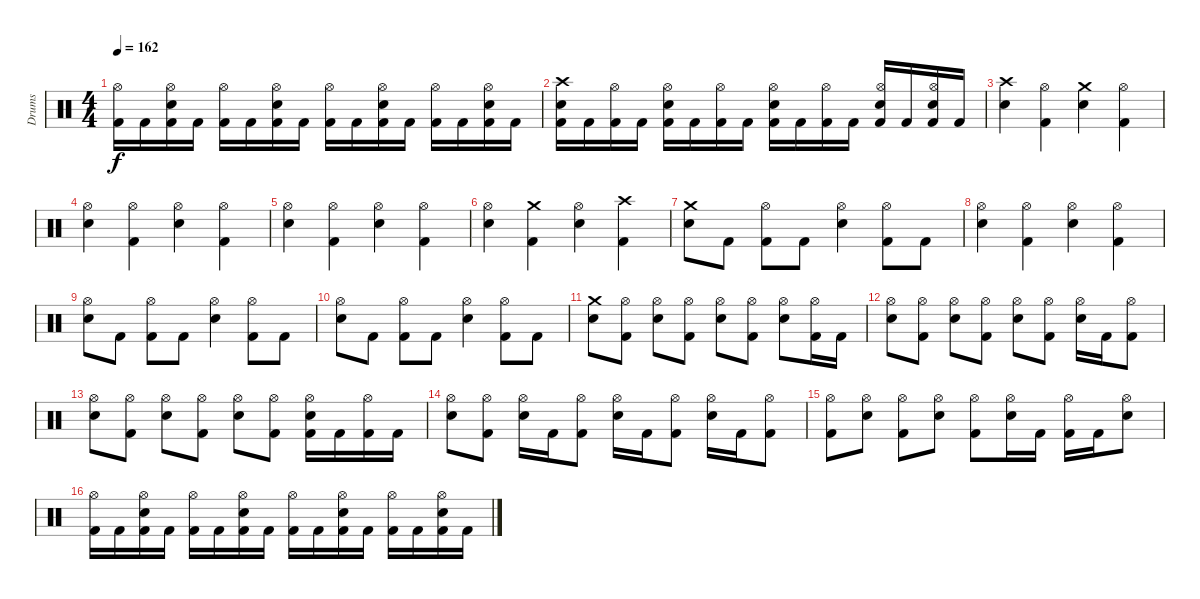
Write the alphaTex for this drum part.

\track ("Drums" "Drums") {instrument percussion}
\staff {score}
\articulation defaults
\ts (4 4)
\tempo 162
\clef neutral
\ks c
("Kick (hit) 2" "Hi-Hat (open)").16{dy f} "Kick (hit) 2".16 ("Kick (hit) 2" "Snare (hit) 2" "Hi-Hat (open)").16 "Kick (hit) 2".16 ("Kick (hit) 2" "Hi-Hat (open)").16 "Kick (hit) 2".16 ("Kick (hit) 2" "Snare (hit) 2" "Hi-Hat (open)").16 "Kick (hit) 2".16 ("Kick (hit) 2" "Hi-Hat (open)").16 "Kick (hit) 2".16 ("Kick (hit) 2" "Snare (hit) 2" "Hi-Hat (open)").16 "Kick (hit) 2".16 ("Kick (hit) 2" "Hi-Hat (open)").16 "Kick (hit) 2".16 ("Kick (hit) 2" "Snare (hit) 2" "Hi-Hat (open)").16 "Kick (hit) 2".16 |
("Kick (hit) 2" "Snare (hit) 2" "Crash high (hit)").16 "Kick (hit) 2".16 ("Kick (hit) 2" "Hi-Hat (open)").16 "Kick (hit) 2".16 ("Kick (hit) 2" "Snare (hit) 2" "Hi-Hat (open)").16 "Kick (hit) 2".16 ("Kick (hit) 2" "Hi-Hat (open)").16 "Kick (hit) 2".16 ("Kick (hit) 2" "Snare (hit) 2" "Hi-Hat (open)").16 "Kick (hit) 2".16 ("Kick (hit) 2" "Hi-Hat (open)").16 "Kick (hit) 2".16 ("Kick (hit) 2" "Snare (hit) 2" "Hi-Hat (open)").16 "Kick (hit) 2".16 ("Kick (hit) 2" "Snare (hit) 2" "Hi-Hat (open)").16 "Kick (hit) 2".16 |
\section ("" "")
("Snare (hit) 2" "Crash high (hit)").4 ("Kick (hit) 2" "Hi-Hat (open)").4 ("Snare (hit) 2" "Crash medium (hit)").4 ("Kick (hit) 2" "Hi-Hat (open)").4 |
("Snare (hit) 2" "Hi-Hat (open)").4 ("Kick (hit) 2" "Hi-Hat (open)").4 ("Snare (hit) 2" "Hi-Hat (open)").4 ("Kick (hit) 2" "Hi-Hat (open)").4 |
("Snare (hit) 2" "Hi-Hat (open)").4 ("Kick (hit) 2" "Hi-Hat (open)").4 ("Snare (hit) 2" "Hi-Hat (open)").4 ("Kick (hit) 2" "Hi-Hat (open)").4 |
("Snare (hit) 2" "Hi-Hat (open)").4 ("Kick (hit) 2" "Crash medium (hit)").4 ("Snare (hit) 2" "Hi-Hat (open)").4 ("Kick (hit) 2" "Crash high (hit)").4 |
("Snare (hit) 2" "Crash medium (hit)").8 "Kick (hit) 2".8 ("Kick (hit) 2" "Hi-Hat (open)").8 "Kick (hit) 2".8 ("Snare (hit) 2" "Hi-Hat (open)").4 ("Kick (hit) 2" "Hi-Hat (open)").8 "Kick (hit) 2".8 |
("Snare (hit) 2" "Hi-Hat (open)").4 ("Kick (hit) 2" "Hi-Hat (open)").4 ("Snare (hit) 2" "Hi-Hat (open)").4 ("Kick (hit) 2" "Hi-Hat (open)").4 |
("Snare (hit) 2" "Hi-Hat (open)").8 "Kick (hit) 2".8 ("Kick (hit) 2" "Hi-Hat (open)").8 "Kick (hit) 2".8 ("Snare (hit) 2" "Hi-Hat (open)").4 ("Kick (hit) 2" "Hi-Hat (open)").8 "Kick (hit) 2".8 |
("Snare (hit) 2" "Hi-Hat (open)").8 "Kick (hit) 2".8 ("Kick (hit) 2" "Hi-Hat (open)").8 "Kick (hit) 2".8 ("Snare (hit) 2" "Hi-Hat (open)").4 ("Kick (hit) 2" "Hi-Hat (open)").8 "Kick (hit) 2".8 |
\section ("" "")
("Snare (hit) 2" "Crash medium (hit)").8 ("Kick (hit) 2" "Hi-Hat (open)").8 ("Snare (hit) 2" "Hi-Hat (open)").8 ("Kick (hit) 2" "Hi-Hat (open)").8 ("Snare (hit) 2" "Hi-Hat (open)").8 ("Kick (hit) 2" "Hi-Hat (open)").8 ("Snare (hit) 2" "Hi-Hat (open)").8 ("Kick (hit) 2" "Hi-Hat (open)").16 "Kick (hit) 2".16 |
("Snare (hit) 2" "Hi-Hat (open)").8 ("Kick (hit) 2" "Hi-Hat (open)").8 ("Snare (hit) 2" "Hi-Hat (open)").8 ("Kick (hit) 2" "Hi-Hat (open)").8 ("Snare (hit) 2" "Hi-Hat (open)").8 ("Kick (hit) 2" "Hi-Hat (open)").8 ("Snare (hit) 2" "Hi-Hat (open)").16 "Kick (hit) 2".16 ("Kick (hit) 2" "Hi-Hat (open)").8 |
("Snare (hit) 2" "Hi-Hat (open)").8 ("Kick (hit) 2" "Hi-Hat (open)").8 ("Snare (hit) 2" "Hi-Hat (open)").8 ("Kick (hit) 2" "Hi-Hat (open)").8 ("Snare (hit) 2" "Hi-Hat (open)").8 ("Kick (hit) 2" "Hi-Hat (open)").8 ("Kick (hit) 2" "Snare (hit) 2" "Hi-Hat (open)").16 "Kick (hit) 2".16 ("Kick (hit) 2" "Hi-Hat (open)").16 "Kick (hit) 2".16 |
("Snare (hit) 2" "Hi-Hat (open)").8 ("Kick (hit) 2" "Hi-Hat (open)").8 ("Snare (hit) 2" "Hi-Hat (open)").16 "Kick (hit) 2".16 ("Kick (hit) 2" "Hi-Hat (open)").8 ("Snare (hit) 2" "Hi-Hat (open)").16 "Kick (hit) 2".16 ("Kick (hit) 2" "Hi-Hat (open)").8 ("Snare (hit) 2" "Hi-Hat (open)").16 "Kick (hit) 2".16 ("Kick (hit) 2" "Hi-Hat (open)").8 |
("Kick (hit) 2" "Hi-Hat (open)").8 ("Snare (hit) 2" "Hi-Hat (open)").8 ("Kick (hit) 2" "Hi-Hat (open)").8 ("Snare (hit) 2" "Hi-Hat (open)").8 ("Kick (hit) 2" "Hi-Hat (open)").8 ("Snare (hit) 2" "Hi-Hat (open)").16 "Kick (hit) 2".16 ("Kick (hit) 2" "Hi-Hat (open)").16 "Kick (hit) 2".16 ("Snare (hit) 2" "Hi-Hat (open)").8 |
("Kick (hit) 2" "Hi-Hat (open)").16 "Kick (hit) 2".16 ("Kick (hit) 2" "Snare (hit) 2" "Hi-Hat (open)").16 "Kick (hit) 2".16 ("Kick (hit) 2" "Hi-Hat (open)").16 "Kick (hit) 2".16 ("Kick (hit) 2" "Snare (hit) 2" "Hi-Hat (open)").16 "Kick (hit) 2".16 ("Kick (hit) 2" "Hi-Hat (open)").16 "Kick (hit) 2".16 ("Kick (hit) 2" "Snare (hit) 2" "Hi-Hat (open)").16 "Kick (hit) 2".16 ("Kick (hit) 2" "Hi-Hat (open)").16 "Kick (hit) 2".16 ("Kick (hit) 2" "Snare (hit) 2" "Hi-Hat (open)").16 "Kick (hit) 2".16
